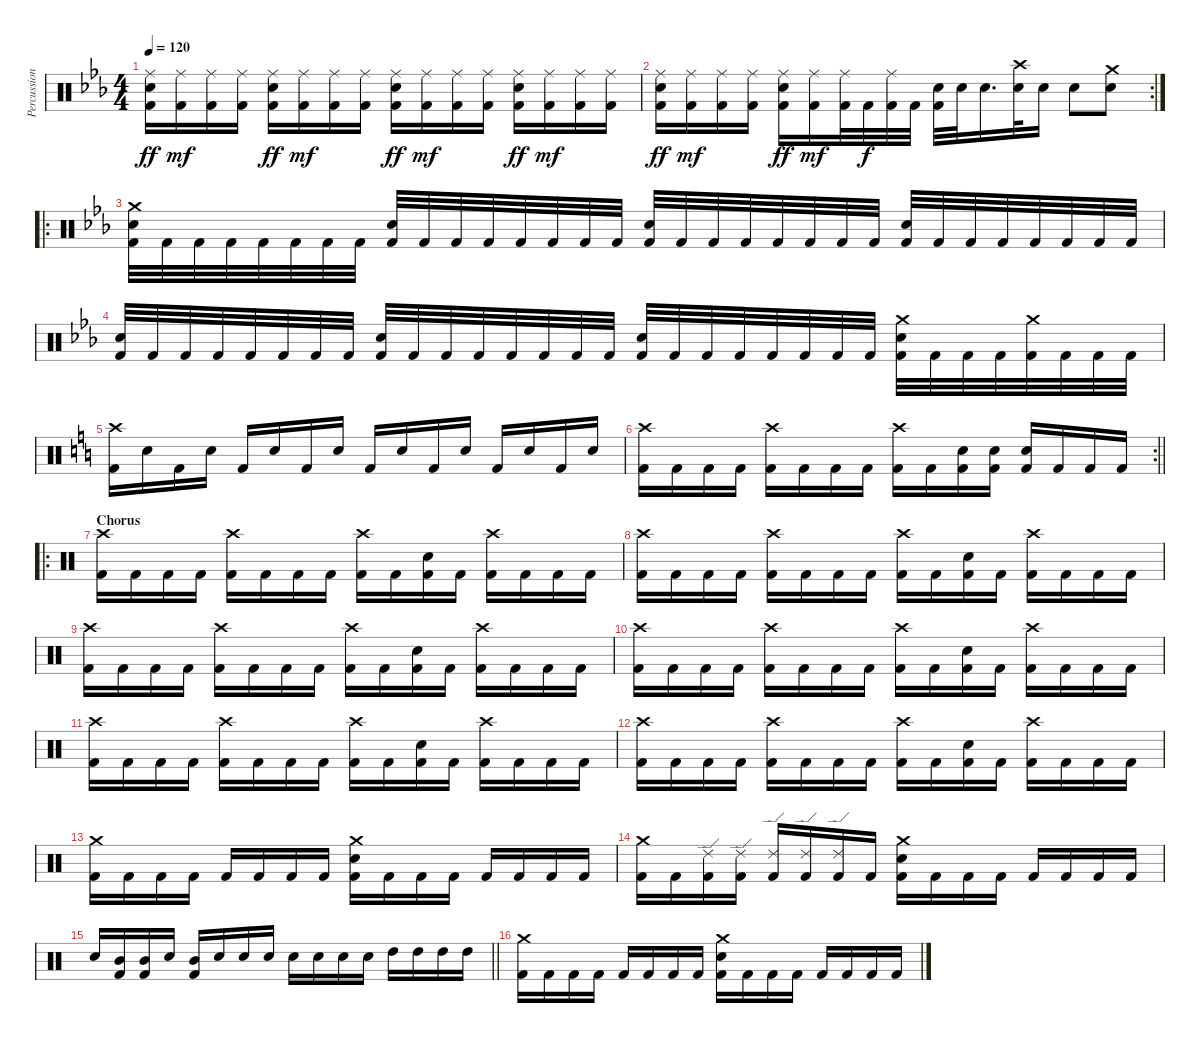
\track ("Percussions" "Percussion") {instrument percussion}
\staff {score}
\articulation defaults
\ts (4 4)
\tempo 120
\clef neutral
\ks eb
("Ride (middle)" "Electric Snare (hit)" "Kick (hit) 2").16{dy ff} ("Ride (middle)" "Kick (hit) 2").16{dy mf} ("Ride (middle)" "Kick (hit) 2").16 ("Ride (middle)" "Kick (hit) 2").16 ("Ride (middle)" "Electric Snare (hit)" "Kick (hit) 2").16{dy ff} ("Ride (middle)" "Kick (hit) 2").16{dy mf} ("Ride (middle)" "Kick (hit) 2").16 ("Ride (middle)" "Kick (hit) 2").16 ("Ride (middle)" "Electric Snare (hit)" "Kick (hit) 2").16{dy ff} ("Ride (middle)" "Kick (hit) 2").16{dy mf} ("Ride (middle)" "Kick (hit) 2").16 ("Ride (middle)" "Kick (hit) 2").16 ("Ride (middle)" "Electric Snare (hit)" "Kick (hit) 2").16{dy ff} ("Ride (middle)" "Kick (hit) 2").16{dy mf} ("Ride (middle)" "Kick (hit) 2").16 ("Ride (middle)" "Kick (hit) 2").16 |
\rc 2
("Ride (middle)" "Electric Snare (hit)" "Kick (hit) 2").16{dy ff} ("Ride (middle)" "Kick (hit) 2").16{dy mf} ("Ride (middle)" "Kick (hit) 2").16 ("Ride (middle)" "Kick (hit) 2").16 ("Ride (middle)" "Electric Snare (hit)" "Kick (hit) 2").16{dy ff} ("Ride (middle)" "Kick (hit) 2").16{dy mf} ("Ride (middle)" "Kick (hit) 2").32 "Kick (hit) 2".32{dy f} ("Ride (middle)" "Kick (hit) 2").32 "Kick (hit) 2".32 ("Electric Snare (hit)" "Kick (hit) 2").32 "Electric Snare (hit)".32 "Electric Snare (hit)".16{d} ("Crash high (hit)" "Electric Snare (hit)").32 "Electric Snare (hit)".16 "Electric Snare (hit)".8 ("Crash medium (hit)" "Electric Snare (hit)").8 |
\ro
("Crash medium (hit)" "Electric Snare (hit)" "Kick (hit) 2").32 "Kick (hit) 2".32 "Kick (hit) 2".32 "Kick (hit) 2".32 "Kick (hit) 2".32 "Kick (hit) 2".32 "Kick (hit) 2".32 "Kick (hit) 2".32 ("Electric Snare (hit)" "Kick (hit) 2").32 "Kick (hit) 2".32 "Kick (hit) 2".32 "Kick (hit) 2".32 "Kick (hit) 2".32 "Kick (hit) 2".32 "Kick (hit) 2".32 "Kick (hit) 2".32 ("Electric Snare (hit)" "Kick (hit) 2").32 "Kick (hit) 2".32 "Kick (hit) 2".32 "Kick (hit) 2".32 "Kick (hit) 2".32 "Kick (hit) 2".32 "Kick (hit) 2".32 "Kick (hit) 2".32 ("Electric Snare (hit)" "Kick (hit) 2").32 "Kick (hit) 2".32 "Kick (hit) 2".32 "Kick (hit) 2".32 "Kick (hit) 2".32 "Kick (hit) 2".32 "Kick (hit) 2".32 "Kick (hit) 2".32 |
\ks cminor
("Electric Snare (hit)" "Kick (hit) 2").32 "Kick (hit) 2".32 "Kick (hit) 2".32 "Kick (hit) 2".32 "Kick (hit) 2".32 "Kick (hit) 2".32 "Kick (hit) 2".32 "Kick (hit) 2".32 ("Electric Snare (hit)" "Kick (hit) 2").32 "Kick (hit) 2".32 "Kick (hit) 2".32 "Kick (hit) 2".32 "Kick (hit) 2".32 "Kick (hit) 2".32 "Kick (hit) 2".32 "Kick (hit) 2".32 ("Electric Snare (hit)" "Kick (hit) 2").32 "Kick (hit) 2".32 "Kick (hit) 2".32 "Kick (hit) 2".32 "Kick (hit) 2".32 "Kick (hit) 2".32 "Kick (hit) 2".32 "Kick (hit) 2".32 ("Crash medium (hit)" "Electric Snare (hit)" "Kick (hit) 2").32 "Kick (hit) 2".32 "Kick (hit) 2".32 "Kick (hit) 2".32 ("Crash medium (hit)" "Kick (hit) 2").32 "Kick (hit) 2".32 "Kick (hit) 2".32 "Kick (hit) 2".32 |
\ks c
("Crash high (hit)" "Kick (hit) 2").16 "Electric Snare (hit)".16 "Kick (hit) 2".16 "Electric Snare (hit)".16 "Kick (hit) 2".16 "Electric Snare (hit)".16 "Kick (hit) 2".16 "Electric Snare (hit)".16 "Kick (hit) 2".16 "Electric Snare (hit)".16 "Kick (hit) 2".16 "Electric Snare (hit)".16 "Kick (hit) 2".16 "Electric Snare (hit)".16 "Kick (hit) 2".16 "Electric Snare (hit)".16 |
\rc 2
\barLineRight lightlight
("Crash high (hit)" "Kick (hit) 2").16 "Kick (hit) 2".16 "Kick (hit) 2".16 "Kick (hit) 2".16 ("Crash high (hit)" "Kick (hit) 2").16 "Kick (hit) 2".16 "Kick (hit) 2".16 "Kick (hit) 2".16 ("Crash high (hit)" "Kick (hit) 2").16 "Kick (hit) 2".16 ("Electric Snare (hit)" "Kick (hit) 2").16 ("Electric Snare (hit)" "Kick (hit) 2").16 ("Electric Snare (hit)" "Kick (hit) 2").16 "Kick (hit) 2".16 "Kick (hit) 2".16 "Kick (hit) 2".16 |
\ro
\section ("" "Chorus")
("Crash high (hit)" "Kick (hit) 2").16 "Kick (hit) 2".16 "Kick (hit) 2".16 "Kick (hit) 2".16 ("Crash high (hit)" "Kick (hit) 2").16 "Kick (hit) 2".16 "Kick (hit) 2".16 "Kick (hit) 2".16 ("Crash high (hit)" "Kick (hit) 2").16 "Kick (hit) 2".16 ("Electric Snare (hit)" "Kick (hit) 2").16 "Kick (hit) 2".16 ("Crash high (hit)" "Kick (hit) 2").16 "Kick (hit) 2".16 "Kick (hit) 2".16 "Kick (hit) 2".16 |
("Crash high (hit)" "Kick (hit) 2").16 "Kick (hit) 2".16 "Kick (hit) 2".16 "Kick (hit) 2".16 ("Crash high (hit)" "Kick (hit) 2").16 "Kick (hit) 2".16 "Kick (hit) 2".16 "Kick (hit) 2".16 ("Crash high (hit)" "Kick (hit) 2").16 "Kick (hit) 2".16 ("Electric Snare (hit)" "Kick (hit) 2").16 "Kick (hit) 2".16 ("Crash high (hit)" "Kick (hit) 2").16 "Kick (hit) 2".16 "Kick (hit) 2".16 "Kick (hit) 2".16 |
("Crash high (hit)" "Kick (hit) 2").16 "Kick (hit) 2".16 "Kick (hit) 2".16 "Kick (hit) 2".16 ("Crash high (hit)" "Kick (hit) 2").16 "Kick (hit) 2".16 "Kick (hit) 2".16 "Kick (hit) 2".16 ("Crash high (hit)" "Kick (hit) 2").16 "Kick (hit) 2".16 ("Electric Snare (hit)" "Kick (hit) 2").16 "Kick (hit) 2".16 ("Crash high (hit)" "Kick (hit) 2").16 "Kick (hit) 2".16 "Kick (hit) 2".16 "Kick (hit) 2".16 |
("Crash high (hit)" "Kick (hit) 2").16 "Kick (hit) 2".16 "Kick (hit) 2".16 "Kick (hit) 2".16 ("Crash high (hit)" "Kick (hit) 2").16 "Kick (hit) 2".16 "Kick (hit) 2".16 "Kick (hit) 2".16 ("Crash high (hit)" "Kick (hit) 2").16 "Kick (hit) 2".16 ("Electric Snare (hit)" "Kick (hit) 2").16 "Kick (hit) 2".16 ("Crash high (hit)" "Kick (hit) 2").16 "Kick (hit) 2".16 "Kick (hit) 2".16 "Kick (hit) 2".16 |
("Crash high (hit)" "Kick (hit) 2").16 "Kick (hit) 2".16 "Kick (hit) 2".16 "Kick (hit) 2".16 ("Crash high (hit)" "Kick (hit) 2").16 "Kick (hit) 2".16 "Kick (hit) 2".16 "Kick (hit) 2".16 ("Crash high (hit)" "Kick (hit) 2").16 "Kick (hit) 2".16 ("Electric Snare (hit)" "Kick (hit) 2").16 "Kick (hit) 2".16 ("Crash high (hit)" "Kick (hit) 2").16 "Kick (hit) 2".16 "Kick (hit) 2".16 "Kick (hit) 2".16 |
("Crash high (hit)" "Kick (hit) 2").16 "Kick (hit) 2".16 "Kick (hit) 2".16 "Kick (hit) 2".16 ("Crash high (hit)" "Kick (hit) 2").16 "Kick (hit) 2".16 "Kick (hit) 2".16 "Kick (hit) 2".16 ("Crash high (hit)" "Kick (hit) 2").16 "Kick (hit) 2".16 ("Electric Snare (hit)" "Kick (hit) 2").16 "Kick (hit) 2".16 ("Crash high (hit)" "Kick (hit) 2").16 "Kick (hit) 2".16 "Kick (hit) 2".16 "Kick (hit) 2".16 |
("Crash medium (hit)" "Kick (hit) 2").16 "Kick (hit) 2".16 "Kick (hit) 2".16 "Kick (hit) 2".16 "Kick (hit) 2".16 "Kick (hit) 2".16 "Kick (hit) 2".16 "Kick (hit) 2".16 ("Crash medium (hit)" "Electric Snare (hit)" "Kick (hit) 2").16 "Kick (hit) 2".16 "Kick (hit) 2".16 "Kick (hit) 2".16 "Kick (hit) 2".16 "Kick (hit) 2".16 "Kick (hit) 2".16 "Kick (hit) 2".16 |
("Crash medium (hit)" "Kick (hit) 2").16 "Kick (hit) 2".16 ("Ride (edge) 2" "Kick (hit) 2").16 ("Ride (edge) 2" "Kick (hit) 2").16 ("Ride (edge) 2" "Kick (hit) 2").16 ("Ride (edge) 2" "Kick (hit) 2").16 ("Ride (edge) 2" "Kick (hit) 2").16 "Kick (hit) 2".16 ("Crash medium (hit)" "Electric Snare (hit)" "Kick (hit) 2").16 "Kick (hit) 2".16 "Kick (hit) 2".16 "Kick (hit) 2".16 "Kick (hit) 2".16 "Kick (hit) 2".16 "Kick (hit) 2".16 "Kick (hit) 2".16 |
\barLineRight lightlight "Electric Snare (hit)".16
("Mid Tom (hit)" "Kick (hit) 2").16 ("Mid Tom (hit)" "Kick (hit) 2").16 "Electric Snare (hit)".16 ("Mid Tom (hit)" "Kick (hit) 2").16 "Electric Snare (hit)".16 "Electric Snare (hit)".16 "Electric Snare (hit)".16 "Electric Snare (hit)".16 "Electric Snare (hit)".16 "Electric Snare (hit)".16 "Electric Snare (hit)".16 "High Tom (hit)".16 "High Tom (hit)".16 "High Tom (hit)".16 "High Tom (hit)".16 |
("Crash medium (hit)" "Kick (hit) 2").16 "Kick (hit) 2".16 "Kick (hit) 2".16 "Kick (hit) 2".16 "Kick (hit) 2".16 "Kick (hit) 2".16 "Kick (hit) 2".16 "Kick (hit) 2".16 ("Crash medium (hit)" "Electric Snare (hit)" "Kick (hit) 2").16 "Kick (hit) 2".16 "Kick (hit) 2".16 "Kick (hit) 2".16 "Kick (hit) 2".16 "Kick (hit) 2".16 "Kick (hit) 2".16 "Kick (hit) 2".16
